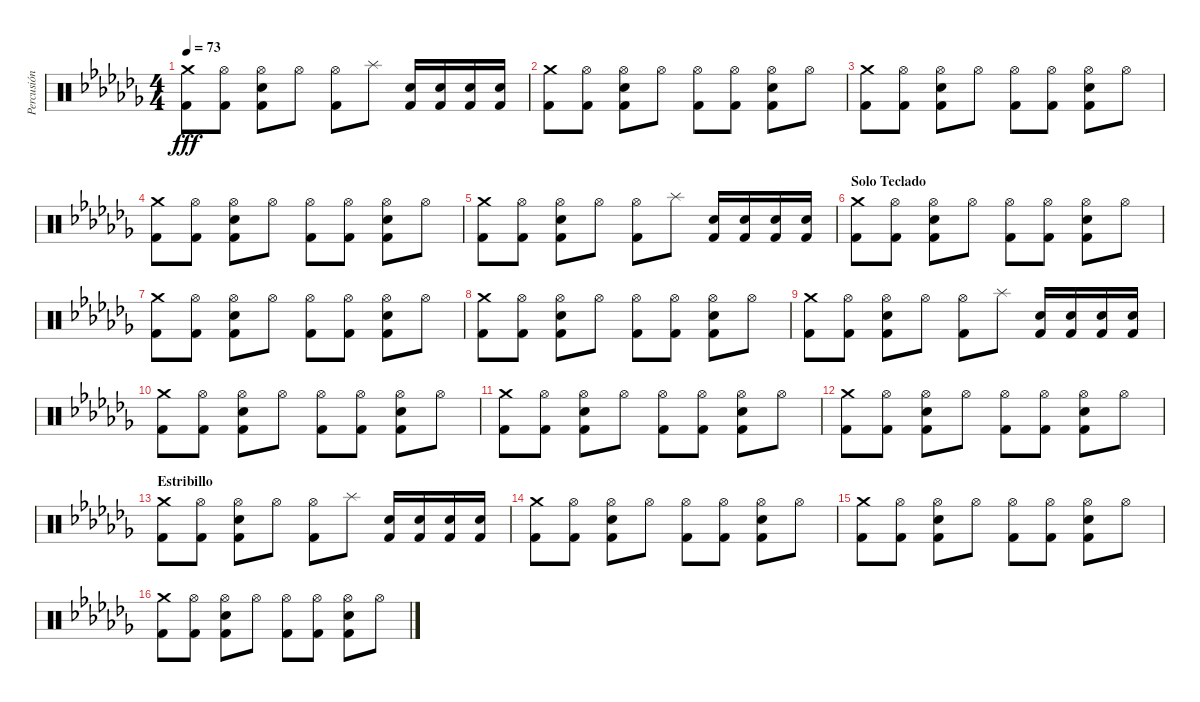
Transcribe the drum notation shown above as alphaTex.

\track ("Percusión" "Percusión") {instrument percussion}
\staff {score}
\articulation defaults
\ts (4 4)
\tempo 73
\clef neutral
\ks abminor
("Crash medium (hit)" "Kick (hit) 2").8{dy fff} ("Hi-Hat (open)" "Kick (hit) 2").8 ("Hi-Hat (open)" "Snare (hit) 2" "Kick (hit) 2").8 "Hi-Hat (open)".8 ("Hi-Hat (open)" "Kick (hit) 2").8 "Splash (hit)".8 ("Snare (hit) 2" "Kick (hit) 2").16 ("Snare (hit) 2" "Kick (hit) 2").16 ("Snare (hit) 2" "Kick (hit) 2").16 ("Snare (hit) 2" "Kick (hit) 2").16 |
("Crash medium (hit)" "Kick (hit) 2").8 ("Hi-Hat (open)" "Kick (hit) 2").8 ("Hi-Hat (open)" "Snare (hit) 2" "Kick (hit) 2").8 "Hi-Hat (open)".8 ("Hi-Hat (open)" "Kick (hit) 2").8 ("Hi-Hat (open)" "Kick (hit) 2").8 ("Hi-Hat (open)" "Snare (hit) 2" "Kick (hit) 2").8 "Hi-Hat (open)".8 |
("Crash medium (hit)" "Kick (hit) 2").8 ("Hi-Hat (open)" "Kick (hit) 2").8 ("Hi-Hat (open)" "Snare (hit) 2" "Kick (hit) 2").8 "Hi-Hat (open)".8 ("Hi-Hat (open)" "Kick (hit) 2").8 ("Hi-Hat (open)" "Kick (hit) 2").8 ("Hi-Hat (open)" "Snare (hit) 2" "Kick (hit) 2").8 "Hi-Hat (open)".8 |
("Crash medium (hit)" "Kick (hit) 2").8 ("Hi-Hat (open)" "Kick (hit) 2").8 ("Hi-Hat (open)" "Snare (hit) 2" "Kick (hit) 2").8 "Hi-Hat (open)".8 ("Hi-Hat (open)" "Kick (hit) 2").8 ("Hi-Hat (open)" "Kick (hit) 2").8 ("Hi-Hat (open)" "Snare (hit) 2" "Kick (hit) 2").8 "Hi-Hat (open)".8 |
("Crash medium (hit)" "Kick (hit) 2").8 ("Hi-Hat (open)" "Kick (hit) 2").8 ("Hi-Hat (open)" "Snare (hit) 2" "Kick (hit) 2").8 "Hi-Hat (open)".8 ("Hi-Hat (open)" "Kick (hit) 2").8 "Splash (hit)".8 ("Snare (hit) 2" "Kick (hit) 2").16 ("Snare (hit) 2" "Kick (hit) 2").16 ("Snare (hit) 2" "Kick (hit) 2").16 ("Snare (hit) 2" "Kick (hit) 2").16 |
\section ("" "Solo Teclado")
("Crash medium (hit)" "Kick (hit) 2").8 ("Hi-Hat (open)" "Kick (hit) 2").8 ("Hi-Hat (open)" "Snare (hit) 2" "Kick (hit) 2").8 "Hi-Hat (open)".8 ("Hi-Hat (open)" "Kick (hit) 2").8 ("Hi-Hat (open)" "Kick (hit) 2").8 ("Hi-Hat (open)" "Snare (hit) 2" "Kick (hit) 2").8 "Hi-Hat (open)".8 |
("Crash medium (hit)" "Kick (hit) 2").8 ("Hi-Hat (open)" "Kick (hit) 2").8 ("Hi-Hat (open)" "Snare (hit) 2" "Kick (hit) 2").8 "Hi-Hat (open)".8 ("Hi-Hat (open)" "Kick (hit) 2").8 ("Hi-Hat (open)" "Kick (hit) 2").8 ("Hi-Hat (open)" "Snare (hit) 2" "Kick (hit) 2").8 "Hi-Hat (open)".8 |
("Crash medium (hit)" "Kick (hit) 2").8 ("Hi-Hat (open)" "Kick (hit) 2").8 ("Hi-Hat (open)" "Snare (hit) 2" "Kick (hit) 2").8 "Hi-Hat (open)".8 ("Hi-Hat (open)" "Kick (hit) 2").8 ("Hi-Hat (open)" "Kick (hit) 2").8 ("Hi-Hat (open)" "Snare (hit) 2" "Kick (hit) 2").8 "Hi-Hat (open)".8 |
("Crash medium (hit)" "Kick (hit) 2").8 ("Hi-Hat (open)" "Kick (hit) 2").8 ("Hi-Hat (open)" "Snare (hit) 2" "Kick (hit) 2").8 "Hi-Hat (open)".8 ("Hi-Hat (open)" "Kick (hit) 2").8 "Splash (hit)".8 ("Snare (hit) 2" "Kick (hit) 2").16 ("Snare (hit) 2" "Kick (hit) 2").16 ("Snare (hit) 2" "Kick (hit) 2").16 ("Snare (hit) 2" "Kick (hit) 2").16 |
("Crash medium (hit)" "Kick (hit) 2").8 ("Hi-Hat (open)" "Kick (hit) 2").8 ("Hi-Hat (open)" "Snare (hit) 2" "Kick (hit) 2").8 "Hi-Hat (open)".8 ("Hi-Hat (open)" "Kick (hit) 2").8 ("Hi-Hat (open)" "Kick (hit) 2").8 ("Hi-Hat (open)" "Snare (hit) 2" "Kick (hit) 2").8 "Hi-Hat (open)".8 |
("Crash medium (hit)" "Kick (hit) 2").8 ("Hi-Hat (open)" "Kick (hit) 2").8 ("Hi-Hat (open)" "Snare (hit) 2" "Kick (hit) 2").8 "Hi-Hat (open)".8 ("Hi-Hat (open)" "Kick (hit) 2").8 ("Hi-Hat (open)" "Kick (hit) 2").8 ("Hi-Hat (open)" "Snare (hit) 2" "Kick (hit) 2").8 "Hi-Hat (open)".8 |
("Crash medium (hit)" "Kick (hit) 2").8 ("Hi-Hat (open)" "Kick (hit) 2").8 ("Hi-Hat (open)" "Snare (hit) 2" "Kick (hit) 2").8 "Hi-Hat (open)".8 ("Hi-Hat (open)" "Kick (hit) 2").8 ("Hi-Hat (open)" "Kick (hit) 2").8 ("Hi-Hat (open)" "Snare (hit) 2" "Kick (hit) 2").8 "Hi-Hat (open)".8 |
\section ("" "Estribillo")
("Crash medium (hit)" "Kick (hit) 2").8 ("Hi-Hat (open)" "Kick (hit) 2").8 ("Hi-Hat (open)" "Snare (hit) 2" "Kick (hit) 2").8 "Hi-Hat (open)".8 ("Hi-Hat (open)" "Kick (hit) 2").8 "Splash (hit)".8 ("Snare (hit) 2" "Kick (hit) 2").16 ("Snare (hit) 2" "Kick (hit) 2").16 ("Snare (hit) 2" "Kick (hit) 2").16 ("Snare (hit) 2" "Kick (hit) 2").16 |
("Crash medium (hit)" "Kick (hit) 2").8 ("Hi-Hat (open)" "Kick (hit) 2").8 ("Hi-Hat (open)" "Snare (hit) 2" "Kick (hit) 2").8 "Hi-Hat (open)".8 ("Hi-Hat (open)" "Kick (hit) 2").8 ("Hi-Hat (open)" "Kick (hit) 2").8 ("Hi-Hat (open)" "Snare (hit) 2" "Kick (hit) 2").8 "Hi-Hat (open)".8 |
("Crash medium (hit)" "Kick (hit) 2").8 ("Hi-Hat (open)" "Kick (hit) 2").8 ("Hi-Hat (open)" "Snare (hit) 2" "Kick (hit) 2").8 "Hi-Hat (open)".8 ("Hi-Hat (open)" "Kick (hit) 2").8 ("Hi-Hat (open)" "Kick (hit) 2").8 ("Hi-Hat (open)" "Snare (hit) 2" "Kick (hit) 2").8 "Hi-Hat (open)".8 |
("Crash medium (hit)" "Kick (hit) 2").8 ("Hi-Hat (open)" "Kick (hit) 2").8 ("Hi-Hat (open)" "Snare (hit) 2" "Kick (hit) 2").8 "Hi-Hat (open)".8 ("Hi-Hat (open)" "Kick (hit) 2").8 ("Hi-Hat (open)" "Kick (hit) 2").8 ("Hi-Hat (open)" "Snare (hit) 2" "Kick (hit) 2").8 "Hi-Hat (open)".8
